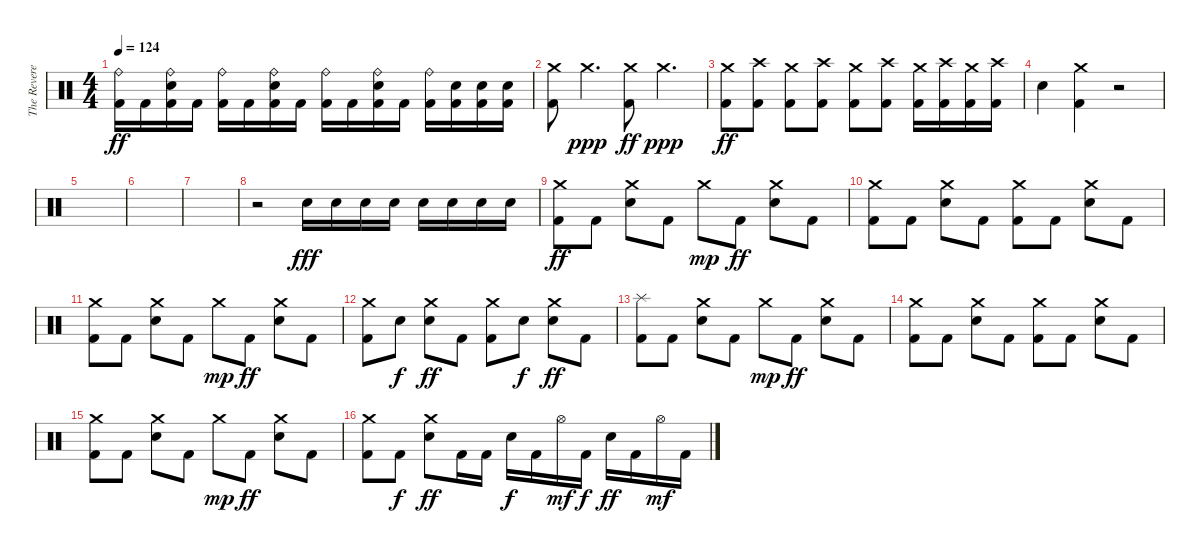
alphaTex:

\track ("The Reverend" "The Revere") {instrument percussion}
\staff {score}
\articulation defaults
\ts (4 4)
\tempo 124
\clef neutral
\ks c
("Ride (bell)" "Kick (hit) 2").16{dy ff} "Kick (hit) 2".16 ("Ride (bell)" "Electric Snare (hit)" "Kick (hit) 2").16 "Kick (hit) 2".16 ("Ride (bell)" "Kick (hit) 2").16 "Kick (hit) 2".16 ("Ride (bell)" "Electric Snare (hit)" "Kick (hit) 2").16 "Kick (hit) 2".16 ("Ride (bell)" "Kick (hit) 2").16 "Kick (hit) 2".16 ("Ride (bell)" "Electric Snare (hit)" "Kick (hit) 2").16 "Kick (hit) 2".16 ("Ride (bell)" "Kick (hit) 2").16 ("Electric Snare (hit)" "Kick (hit) 2").16 ("Electric Snare (hit)" "Kick (hit) 2").16 ("Electric Snare (hit)" "Kick (hit) 2").16 |
("Crash medium (hit)" "Kick (hit) 2").8 "Crash medium (hit)".4{d dy ppp} ("Crash medium (hit)" "Kick (hit) 2").8{dy ff} "Crash medium (hit)".4{d dy ppp} |
("Crash medium (hit)" "Kick (hit) 2").8{dy ff} ("Crash high (hit)" "Kick (hit) 2").8 ("Crash medium (hit)" "Kick (hit) 2").8 ("Crash high (hit)" "Kick (hit) 2").8 ("Crash medium (hit)" "Kick (hit) 2").8 ("Crash high (hit)" "Kick (hit) 2").8 ("Crash medium (hit)" "Kick (hit) 2").16 ("Crash high (hit)" "Kick (hit) 2").16 ("Crash medium (hit)" "Kick (hit) 2").16 ("Crash high (hit)" "Kick (hit) 2").16 |
"Electric Snare (hit)".4 ("Crash medium (hit)" "Kick (hit) 2").4 r.2 |
|
|
|
r.2 "Electric Snare (hit)".16{dy fff} "Electric Snare (hit)".16 "Electric Snare (hit)".16 "Electric Snare (hit)".16 "Electric Snare (hit)".16 "Electric Snare (hit)".16 "Electric Snare (hit)".16 "Electric Snare (hit)".16 |
("Crash medium (hit)" "Kick (hit) 2").8{dy ff} "Kick (hit) 2".8 ("Crash medium (hit)" "Electric Snare (hit)").8 "Kick (hit) 2".8 "Crash medium (hit)".8{dy mp} "Kick (hit) 2".8{dy ff} ("Crash medium (hit)" "Electric Snare (hit)").8 "Kick (hit) 2".8 |
("Crash medium (hit)" "Kick (hit) 2").8 "Kick (hit) 2".8 ("Crash medium (hit)" "Electric Snare (hit)").8 "Kick (hit) 2".8 ("Crash medium (hit)" "Kick (hit) 2").8 "Kick (hit) 2".8 ("Crash medium (hit)" "Electric Snare (hit)").8 "Kick (hit) 2".8 |
("Crash medium (hit)" "Kick (hit) 2").8 "Kick (hit) 2".8 ("Crash medium (hit)" "Electric Snare (hit)").8 "Kick (hit) 2".8 "Crash medium (hit)".8{dy mp} "Kick (hit) 2".8{dy ff} ("Crash medium (hit)" "Electric Snare (hit)").8 "Kick (hit) 2".8 |
("Crash medium (hit)" "Kick (hit) 2").8 "Electric Snare (hit)".8{dy f} ("Crash medium (hit)" "Electric Snare (hit)").8{dy ff} "Kick (hit) 2".8 ("Crash medium (hit)" "Kick (hit) 2").8 "Electric Snare (hit)".8{dy f} ("Crash medium (hit)" "Electric Snare (hit)").8{dy ff} "Kick (hit) 2".8 |
("Splash (hit)" "Kick (hit) 2").8 "Kick (hit) 2".8 ("Crash medium (hit)" "Electric Snare (hit)").8 "Kick (hit) 2".8 "Crash medium (hit)".8{dy mp} "Kick (hit) 2".8{dy ff} ("Crash medium (hit)" "Electric Snare (hit)").8 "Kick (hit) 2".8 |
("Crash medium (hit)" "Kick (hit) 2").8 "Kick (hit) 2".8 ("Crash medium (hit)" "Electric Snare (hit)").8 "Kick (hit) 2".8 ("Crash medium (hit)" "Kick (hit) 2").8 "Kick (hit) 2".8 ("Crash medium (hit)" "Electric Snare (hit)").8 "Kick (hit) 2".8 |
("Crash medium (hit)" "Kick (hit) 2").8 "Kick (hit) 2".8 ("Crash medium (hit)" "Electric Snare (hit)").8 "Kick (hit) 2".8 "Crash medium (hit)".8{dy mp} "Kick (hit) 2".8{dy ff} ("Crash medium (hit)" "Electric Snare (hit)").8 "Kick (hit) 2".8 |
("Crash medium (hit)" "Kick (hit) 2").8 "Kick (hit) 2".8{dy f} ("Crash medium (hit)" "Electric Snare (hit)").8{dy ff} "Kick (hit) 2".16 "Kick (hit) 2".16 "Electric Snare (hit)".16{dy f} "Kick (hit) 2".16 "Hi-Hat (open)".16{dy mf} "Kick (hit) 2".16{dy f} "Electric Snare (hit)".16{dy ff} "Kick (hit) 2".16 "Hi-Hat (open)".16{dy mf} "Kick (hit) 2".16
